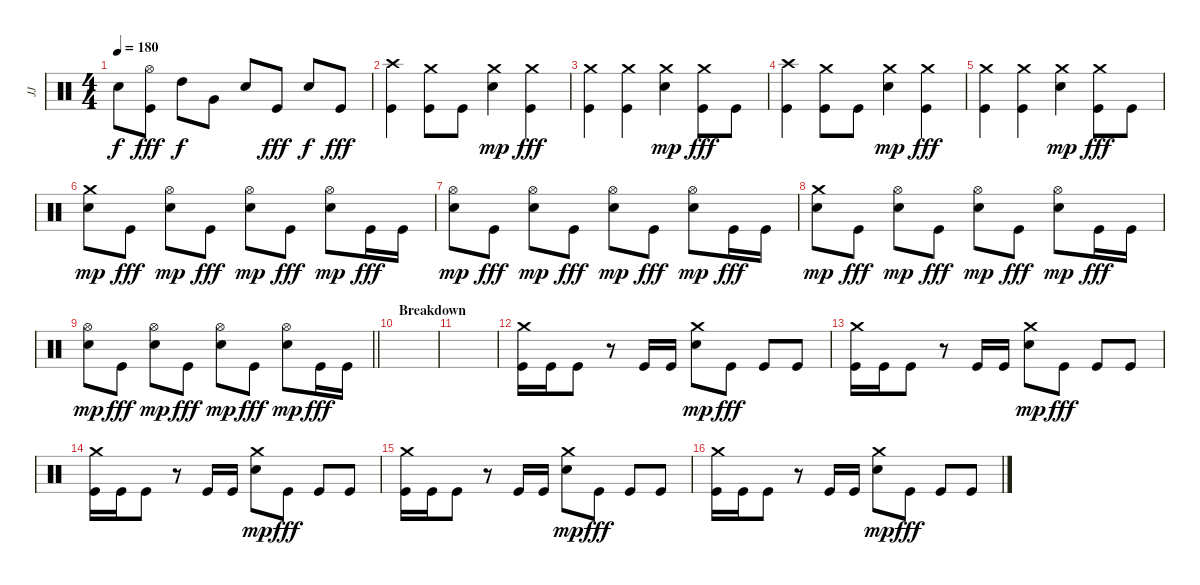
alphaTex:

\track ("JJ" "JJ") {mute instrument percussion}
\staff {score}
\articulation defaults
\ts (4 4)
\tempo 180
\clef neutral
\ks c "Snare (hit) 2".8{dy f}
("Hi-Hat (open)" "Kick (hit)").8{dy fff} "High Tom (hit)".8{dy f} "Very Low Tom (hit)".8 "Electric Snare (hit)".8 "Kick (hit)".8{dy fff} "Snare (hit) 2".8{dy f} "Kick (hit)".8{dy fff} |
("Crash high (hit)" "Kick (hit)").4 ("Crash medium (hit)" "Kick (hit)").8 "Kick (hit)".8 ("Crash medium (hit)" "Snare (hit) 2").4{dy mp} ("Crash medium (hit)" "Kick (hit)").4{dy fff} |
("Crash medium (hit)" "Kick (hit)").4 ("Crash medium (hit)" "Kick (hit)").4 ("Crash medium (hit)" "Electric Snare (hit)").4{dy mp} ("Crash medium (hit)" "Kick (hit)").8{dy fff} "Kick (hit)".8 |
("Crash high (hit)" "Kick (hit)").4 ("Crash medium (hit)" "Kick (hit)").8 "Kick (hit)".8 ("Crash medium (hit)" "Snare (hit) 2").4{dy mp} ("Crash medium (hit)" "Kick (hit)").4{dy fff} |
("Crash medium (hit)" "Kick (hit)").4 ("Crash medium (hit)" "Kick (hit)").4 ("Crash medium (hit)" "Electric Snare (hit)").4{dy mp} ("Crash medium (hit)" "Kick (hit)").8{dy fff} "Kick (hit)".8 |
("Crash medium (hit)" "Snare (hit) 2").8{dy mp} "Kick (hit)".8{dy fff} ("Hi-Hat (open)" "Snare (hit) 2").8{dy mp} "Kick (hit)".8{dy fff} ("Hi-Hat (open)" "Snare (hit) 2").8{dy mp} "Kick (hit)".8{dy fff} ("Hi-Hat (open)" "Snare (hit) 2").8{dy mp} "Kick (hit)".16{dy fff} "Kick (hit)".16 |
("Hi-Hat (open)" "Snare (hit) 2").8{dy mp} "Kick (hit)".8{dy fff} ("Hi-Hat (open)" "Snare (hit) 2").8{dy mp} "Kick (hit)".8{dy fff} ("Hi-Hat (open)" "Snare (hit) 2").8{dy mp} "Kick (hit)".8{dy fff} ("Hi-Hat (open)" "Snare (hit) 2").8{dy mp} "Kick (hit)".16{dy fff} "Kick (hit)".16 |
("Crash medium (hit)" "Snare (hit) 2").8{dy mp} "Kick (hit)".8{dy fff} ("Hi-Hat (open)" "Snare (hit) 2").8{dy mp} "Kick (hit)".8{dy fff} ("Hi-Hat (open)" "Snare (hit) 2").8{dy mp} "Kick (hit)".8{dy fff} ("Hi-Hat (open)" "Snare (hit) 2").8{dy mp} "Kick (hit)".16{dy fff} "Kick (hit)".16 |
\barLineRight lightlight
("Hi-Hat (open)" "Snare (hit) 2").8{dy mp} "Kick (hit)".8{dy fff} ("Hi-Hat (open)" "Snare (hit) 2").8{dy mp} "Kick (hit)".8{dy fff} ("Hi-Hat (open)" "Snare (hit) 2").8{dy mp} "Kick (hit)".8{dy fff} ("Hi-Hat (open)" "Snare (hit) 2").8{dy mp} "Kick (hit)".16{dy fff} "Kick (hit)".16 |
\section ("" "Breakdown")
|
|
("Crash medium (hit)" "Kick (hit)").16 "Kick (hit)".16 "Kick (hit)".8 r.8 "Kick (hit)".16 "Kick (hit)".16 ("Crash medium (hit)" "Snare (hit) 2").8{dy mp} "Kick (hit)".8{dy fff} "Kick (hit)".8 "Kick (hit)".8 |
("Crash medium (hit)" "Kick (hit)").16 "Kick (hit)".16 "Kick (hit)".8 r.8 "Kick (hit)".16 "Kick (hit)".16 ("Crash medium (hit)" "Snare (hit) 2").8{dy mp} "Kick (hit)".8{dy fff} "Kick (hit)".8 "Kick (hit)".8 |
("Crash medium (hit)" "Kick (hit)").16 "Kick (hit)".16 "Kick (hit)".8 r.8 "Kick (hit)".16 "Kick (hit)".16 ("Crash medium (hit)" "Snare (hit) 2").8{dy mp} "Kick (hit)".8{dy fff} "Kick (hit)".8 "Kick (hit)".8 |
("Crash medium (hit)" "Kick (hit)").16 "Kick (hit)".16 "Kick (hit)".8 r.8 "Kick (hit)".16 "Kick (hit)".16 ("Crash medium (hit)" "Snare (hit) 2").8{dy mp} "Kick (hit)".8{dy fff} "Kick (hit)".8 "Kick (hit)".8 |
("Crash medium (hit)" "Kick (hit)").16 "Kick (hit)".16 "Kick (hit)".8 r.8 "Kick (hit)".16 "Kick (hit)".16 ("Crash medium (hit)" "Snare (hit) 2").8{dy mp} "Kick (hit)".8{dy fff} "Kick (hit)".8 "Kick (hit)".8
